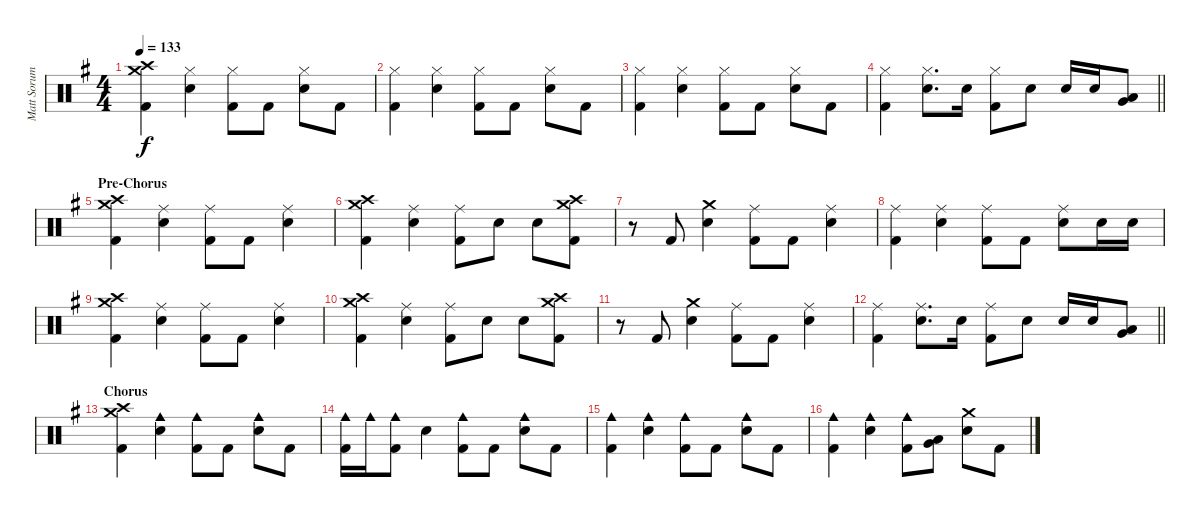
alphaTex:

\track ("Matt Sorum - Drums" "Matt Sorum") {instrument percussion}
\staff {score}
\articulation defaults
\ts (4 4)
\tempo 133
\clef neutral
\ks g
("Crash medium (hit)" "Crash high (hit)" "Kick (hit) 2").4{dy f} ("Hi-Hat (closed)" "Snare (hit) 2").4 ("Hi-Hat (closed)" "Kick (hit) 2").8 "Kick (hit) 2".8 ("Hi-Hat (closed)" "Snare (hit) 2").8 "Kick (hit) 2".8 |
("Hi-Hat (closed)" "Kick (hit) 2").4 ("Hi-Hat (closed)" "Snare (hit) 2").4 ("Hi-Hat (closed)" "Kick (hit) 2").8 "Kick (hit) 2".8 ("Hi-Hat (closed)" "Snare (hit) 2").8 "Kick (hit) 2".8 |
("Hi-Hat (closed)" "Kick (hit) 2").4 ("Hi-Hat (closed)" "Snare (hit) 2").4 ("Hi-Hat (closed)" "Kick (hit) 2").8 "Kick (hit) 2".8 ("Hi-Hat (closed)" "Snare (hit) 2").8 "Kick (hit) 2".8 |
\barLineRight lightlight
("Hi-Hat (closed)" "Kick (hit) 2").4 ("Hi-Hat (closed)" "Snare (hit) 2").8{d} "Snare (hit) 2".16 ("Hi-Hat (closed)" "Kick (hit) 2").8 "Snare (hit) 2".8 "Snare (hit) 2".16 "Snare (hit) 2".16 ("Low Tom (hit)" "Very Low Tom (hit)").8 |
\section ("" "Pre-Chorus")
("Crash medium (hit)" "Crash high (hit)" "Kick (hit) 2").4 ("Ride (middle)" "Snare (hit) 2").4 ("Ride (middle)" "Kick (hit) 2").8 "Kick (hit) 2".8 ("Ride (middle)" "Snare (hit) 2").4 |
("Crash medium (hit)" "Crash high (hit)" "Kick (hit) 2").4 ("Ride (middle)" "Snare (hit) 2").4 ("Ride (middle)" "Kick (hit) 2").8 "Snare (hit) 2".8 "Snare (hit) 2".8 ("Crash medium (hit)" "Crash high (hit)" "Kick (hit) 2").8 |
r.8 "Kick (hit) 2".8 ("Crash medium (hit)" "Snare (hit) 2").4 ("Ride (middle)" "Kick (hit) 2").8 "Kick (hit) 2".8 ("Ride (middle)" "Snare (hit) 2").4 |
("Ride (middle)" "Kick (hit) 2").4 ("Ride (middle)" "Snare (hit) 2").4 ("Ride (middle)" "Kick (hit) 2").8 "Kick (hit) 2".8 ("Ride (middle)" "Snare (hit) 2").8 "Snare (hit) 2".16 "Snare (hit) 2".16 |
("Crash medium (hit)" "Crash high (hit)" "Kick (hit) 2").4 ("Ride (middle)" "Snare (hit) 2").4 ("Ride (middle)" "Kick (hit) 2").8 "Kick (hit) 2".8 ("Ride (middle)" "Snare (hit) 2").4 |
("Crash medium (hit)" "Crash high (hit)" "Kick (hit) 2").4 ("Ride (middle)" "Snare (hit) 2").4 ("Ride (middle)" "Kick (hit) 2").8 "Snare (hit) 2".8 "Snare (hit) 2".8 ("Crash medium (hit)" "Crash high (hit)" "Kick (hit) 2").8 |
r.8 "Kick (hit) 2".8 ("Crash medium (hit)" "Snare (hit) 2").4 ("Ride (middle)" "Kick (hit) 2").8 "Kick (hit) 2".8 ("Ride (middle)" "Snare (hit) 2").4 |
\barLineRight lightlight
("Ride (middle)" "Kick (hit) 2").4 ("Ride (middle)" "Snare (hit) 2").8{d} "Snare (hit) 2".16 ("Ride (middle)" "Kick (hit) 2").8 "Snare (hit) 2".8 "Snare (hit) 2".16 "Snare (hit) 2".16 ("Low Tom (hit)" "Very Low Tom (hit)").8 |
\section ("" "Chorus")
("Crash medium (hit)" "Crash high (hit)" "Kick (hit) 2").4 ("Cowbell medium (hit)" "Snare (hit) 2").4 ("Cowbell medium (hit)" "Kick (hit) 2").8 "Kick (hit) 2".8 ("Cowbell medium (hit)" "Snare (hit) 2").8 "Kick (hit) 2".8 |
("Cowbell medium (hit)" "Kick (hit) 2").16 "Cowbell medium (hit)".16 ("Cowbell medium (hit)" "Kick (hit) 2").8 "Snare (hit) 2".4 ("Cowbell medium (hit)" "Kick (hit) 2").8 "Kick (hit) 2".8 ("Cowbell medium (hit)" "Snare (hit) 2").8 "Kick (hit) 2".8 |
("Cowbell medium (hit)" "Kick (hit) 2").4 ("Cowbell medium (hit)" "Snare (hit) 2").4 ("Cowbell medium (hit)" "Kick (hit) 2").8 "Kick (hit) 2".8 ("Cowbell medium (hit)" "Snare (hit) 2").8 "Kick (hit) 2".8 |
("Cowbell medium (hit)" "Kick (hit) 2").4 ("Cowbell medium (hit)" "Snare (hit) 2").4 ("Cowbell medium (hit)" "Kick (hit) 2").8 ("Low Tom (hit)" "Very Low Tom (hit)").8 ("Crash medium (hit)" "Snare (hit) 2").8 "Kick (hit) 2".8
